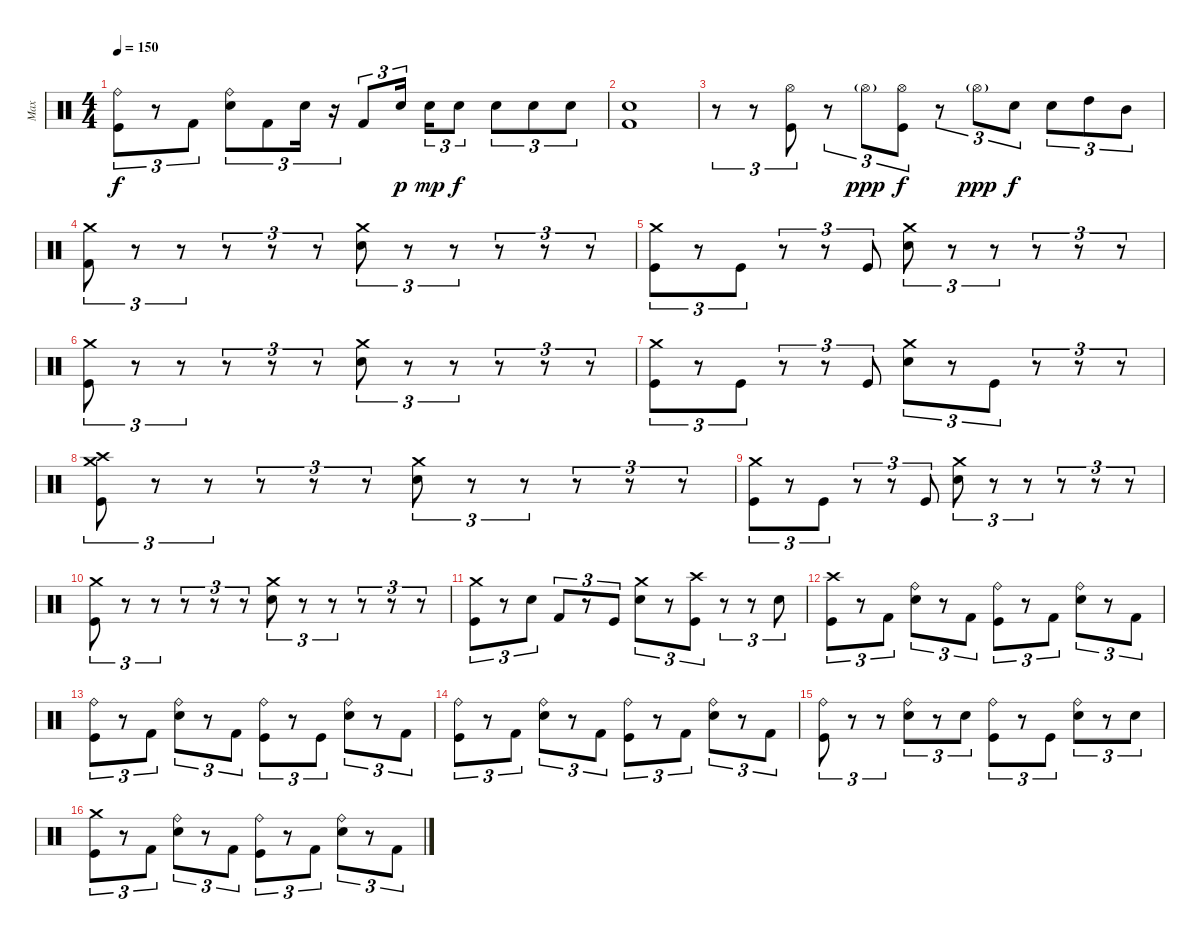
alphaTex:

\track ("Max" "Max") {instrument percussion}
\staff {score}
\articulation defaults
\ts (4 4)
\tempo 150
\clef neutral
\ks c
("Ride (bell)" "Kick (hit)").8{tu (3 2) dy f} r.8{tu (3 2)} "Kick (hit) 2".8{tu (3 2)} ("Ride (bell)" "Electric Snare (hit)").8{tu (3 2)} "Kick (hit) 2".8{tu (3 2)} "Electric Snare (hit)".16{tu (3 2)} r.16{tu (3 2)} "Kick (hit) 2".8{tu (3 2)} "Electric Snare (hit)".16{tu (3 2) dy p} "Electric Snare (hit)".16{tu (3 2) dy mp} "Electric Snare (hit)".8{tu (3 2) dy f} "Electric Snare (hit)".8{tu (3 2)} "Electric Snare (hit)".8{tu (3 2)} "Electric Snare (hit)".8{tu (3 2)} |
("Electric Snare (hit)" "Kick (hit) 2").1 |
r.8{tu (3 2)} r.8{tu (3 2)} ("Hi-Hat (open)" "Kick (hit)").8{tu (3 2)} r.8{tu (3 2)} "Hi-Hat (open)"{g}.8{tu (3 2) dy ppp} ("Hi-Hat (open)" "Kick (hit)").8{tu (3 2) dy f} r.8{tu (3 2)} "Hi-Hat (open)"{g}.8{tu (3 2) dy ppp} "Electric Snare (hit)".8{tu (3 2) dy f} "Electric Snare (hit)".8{tu (3 2)} "High Tom (hit)".8{tu (3 2)} "Mid Tom (hit)".8{tu (3 2)} |
("Crash medium (hit)" "Kick (hit) 2").8{tu (3 2)} r.8{tu (3 2)} r.8{tu (3 2)} r.8{tu (3 2)} r.8{tu (3 2)} r.8{tu (3 2)} ("Crash medium (hit)" "Electric Snare (hit)").8{tu (3 2)} r.8{tu (3 2)} r.8{tu (3 2)} r.8{tu (3 2)} r.8{tu (3 2)} r.8{tu (3 2)} |
("Crash medium (hit)" "Kick (hit)").8{tu (3 2)} r.8{tu (3 2)} "Kick (hit)".8{tu (3 2)} r.8{tu (3 2)} r.8{tu (3 2)} "Kick (hit)".8{tu (3 2)} ("Crash medium (hit)" "Electric Snare (hit)").8{tu (3 2)} r.8{tu (3 2)} r.8{tu (3 2)} r.8{tu (3 2)} r.8{tu (3 2)} r.8{tu (3 2)} |
("Crash medium (hit)" "Kick (hit)").8{tu (3 2)} r.8{tu (3 2)} r.8{tu (3 2)} r.8{tu (3 2)} r.8{tu (3 2)} r.8{tu (3 2)} ("Crash medium (hit)" "Electric Snare (hit)").8{tu (3 2)} r.8{tu (3 2)} r.8{tu (3 2)} r.8{tu (3 2)} r.8{tu (3 2)} r.8{tu (3 2)} |
("Crash medium (hit)" "Kick (hit)").8{tu (3 2)} r.8{tu (3 2)} "Kick (hit)".8{tu (3 2)} r.8{tu (3 2)} r.8{tu (3 2)} "Kick (hit)".8{tu (3 2)} ("Crash medium (hit)" "Electric Snare (hit)").8{tu (3 2)} r.8{tu (3 2)} "Kick (hit)".8{tu (3 2)} r.8{tu (3 2)} r.8{tu (3 2)} r.8{tu (3 2)} |
("Crash medium (hit)" "Crash high (hit)" "Kick (hit)").8{tu (3 2)} r.8{tu (3 2)} r.8{tu (3 2)} r.8{tu (3 2)} r.8{tu (3 2)} r.8{tu (3 2)} ("Crash medium (hit)" "Electric Snare (hit)").8{tu (3 2)} r.8{tu (3 2)} r.8{tu (3 2)} r.8{tu (3 2)} r.8{tu (3 2)} r.8{tu (3 2)} |
("Crash medium (hit)" "Kick (hit)").8{tu (3 2)} r.8{tu (3 2)} "Kick (hit)".8{tu (3 2)} r.8{tu (3 2)} r.8{tu (3 2)} "Kick (hit)".8{tu (3 2)} ("Crash medium (hit)" "Electric Snare (hit)").8{tu (3 2)} r.8{tu (3 2)} r.8{tu (3 2)} r.8{tu (3 2)} r.8{tu (3 2)} r.8{tu (3 2)} |
("Crash medium (hit)" "Kick (hit)").8{tu (3 2)} r.8{tu (3 2)} r.8{tu (3 2)} r.8{tu (3 2)} r.8{tu (3 2)} r.8{tu (3 2)} ("Crash medium (hit)" "Electric Snare (hit)").8{tu (3 2)} r.8{tu (3 2)} r.8{tu (3 2)} r.8{tu (3 2)} r.8{tu (3 2)} r.8{tu (3 2)} |
("Crash medium (hit)" "Kick (hit)").8{tu (3 2)} r.8{tu (3 2)} "Electric Snare (hit)".8{tu (3 2)} "Kick (hit) 2".8{tu (3 2)} r.8{tu (3 2)} "Kick (hit)".8{tu (3 2)} ("Crash medium (hit)" "Electric Snare (hit)").8{tu (3 2)} r.8{tu (3 2)} ("Crash high (hit)" "Kick (hit)").8{tu (3 2)} r.8{tu (3 2)} r.8{tu (3 2)} "Electric Snare (hit)".8{tu (3 2)} |
("Crash high (hit)" "Kick (hit)").8{tu (3 2)} r.8{tu (3 2)} "Kick (hit) 2".8{tu (3 2)} ("Ride (bell)" "Electric Snare (hit)").8{tu (3 2)} r.8{tu (3 2)} "Kick (hit) 2".8{tu (3 2)} ("Ride (bell)" "Kick (hit)").8{tu (3 2)} r.8{tu (3 2)} "Kick (hit) 2".8{tu (3 2)} ("Ride (bell)" "Electric Snare (hit)").8{tu (3 2)} r.8{tu (3 2)} "Kick (hit) 2".8{tu (3 2)} |
("Ride (bell)" "Kick (hit)").8{tu (3 2)} r.8{tu (3 2)} "Kick (hit) 2".8{tu (3 2)} ("Ride (bell)" "Electric Snare (hit)").8{tu (3 2)} r.8{tu (3 2)} "Kick (hit) 2".8{tu (3 2)} ("Ride (bell)" "Kick (hit)").8{tu (3 2)} r.8{tu (3 2)} "Kick (hit)".8{tu (3 2)} ("Ride (bell)" "Electric Snare (hit)").8{tu (3 2)} r.8{tu (3 2)} "Kick (hit) 2".8{tu (3 2)} |
("Ride (bell)" "Kick (hit)").8{tu (3 2)} r.8{tu (3 2)} "Kick (hit) 2".8{tu (3 2)} ("Ride (bell)" "Electric Snare (hit)").8{tu (3 2)} r.8{tu (3 2)} "Kick (hit) 2".8{tu (3 2)} ("Ride (bell)" "Kick (hit)").8{tu (3 2)} r.8{tu (3 2)} "Kick (hit) 2".8{tu (3 2)} ("Ride (bell)" "Electric Snare (hit)").8{tu (3 2)} r.8{tu (3 2)} "Kick (hit) 2".8{tu (3 2)} |
("Ride (bell)" "Kick (hit)").8{tu (3 2)} r.8{tu (3 2)} r.8{tu (3 2)} ("Ride (bell)" "Electric Snare (hit)").8{tu (3 2)} r.8{tu (3 2)} "Electric Snare (hit)".8{tu (3 2)} ("Ride (bell)" "Kick (hit)").8{tu (3 2)} r.8{tu (3 2)} "Kick (hit)".8{tu (3 2)} ("Ride (bell)" "Electric Snare (hit)").8{tu (3 2)} r.8{tu (3 2)} "Electric Snare (hit)".8{tu (3 2)} |
("Crash medium (hit)" "Kick (hit)").8{tu (3 2)} r.8{tu (3 2)} "Kick (hit) 2".8{tu (3 2)} ("Ride (bell)" "Electric Snare (hit)").8{tu (3 2)} r.8{tu (3 2)} "Kick (hit) 2".8{tu (3 2)} ("Ride (bell)" "Kick (hit)").8{tu (3 2)} r.8{tu (3 2)} "Kick (hit) 2".8{tu (3 2)} ("Ride (bell)" "Electric Snare (hit)").8{tu (3 2)} r.8{tu (3 2)} "Kick (hit) 2".8{tu (3 2)}
